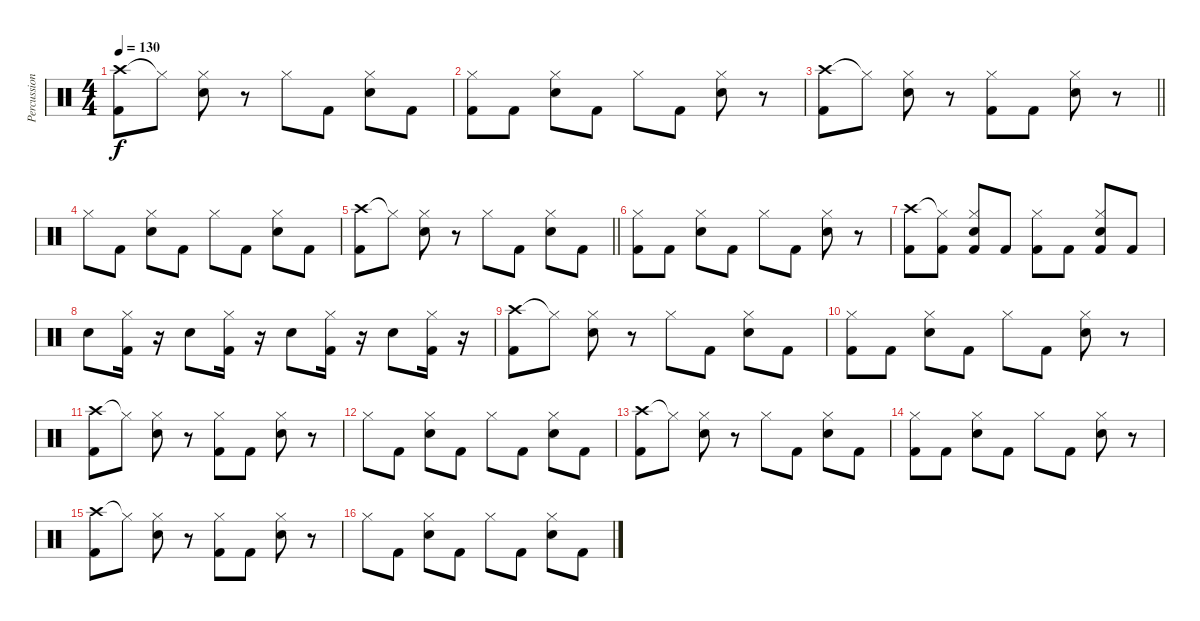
\track ("Percussion" "Percussion") {instrument percussion}
\staff {score}
\articulation defaults
\ts (4 4)
\tempo 130
\clef neutral
\ks c
("Crash high (hit)" "Kick (hit) 2").8{dy f} "Hi-Hat (closed)"{t}.8 ("Hi-Hat (closed)" "Snare (hit) 2").8 r.8 "Hi-Hat (closed)".8 "Kick (hit) 2".8 ("Hi-Hat (closed)" "Snare (hit) 2").8 "Kick (hit) 2".8 |
("Hi-Hat (closed)" "Kick (hit) 2").8 "Kick (hit) 2".8 ("Hi-Hat (closed)" "Snare (hit) 2").8 "Kick (hit) 2".8 "Hi-Hat (closed)".8 "Kick (hit) 2".8 ("Hi-Hat (closed)" "Snare (hit) 2").8 r.8 |
\barLineRight lightlight
("Crash high (hit)" "Kick (hit) 2").8 "Hi-Hat (closed)"{t}.8 ("Hi-Hat (closed)" "Snare (hit) 2").8 r.8 ("Hi-Hat (closed)" "Kick (hit) 2").8 "Kick (hit) 2".8 ("Hi-Hat (closed)" "Snare (hit) 2").8 r.8 |
"Hi-Hat (closed)".8 "Kick (hit) 2".8 ("Hi-Hat (closed)" "Snare (hit) 2").8 "Kick (hit) 2".8 "Hi-Hat (closed)".8 "Kick (hit) 2".8 ("Hi-Hat (closed)" "Snare (hit) 2").8 "Kick (hit) 2".8 |
\barLineRight lightlight
("Crash high (hit)" "Kick (hit) 2").8 "Hi-Hat (closed)"{t}.8 ("Hi-Hat (closed)" "Snare (hit) 2").8 r.8 "Hi-Hat (closed)".8 "Kick (hit) 2".8 ("Hi-Hat (closed)" "Snare (hit) 2").8 "Kick (hit) 2".8 |
("Hi-Hat (closed)" "Kick (hit) 2").8 "Kick (hit) 2".8 ("Hi-Hat (closed)" "Snare (hit) 2").8 "Kick (hit) 2".8 "Hi-Hat (closed)".8 "Kick (hit) 2".8 ("Hi-Hat (closed)" "Snare (hit) 2").8 r.8 |
("Crash high (hit)" "Kick (hit) 2").8 ("Hi-Hat (closed)"{t} "Kick (hit) 2").8 ("Hi-Hat (closed)" "Snare (hit) 2" "Kick (hit) 2").8 "Kick (hit) 2".8 ("Hi-Hat (closed)" "Kick (hit) 2").8 "Kick (hit) 2".8 ("Hi-Hat (closed)" "Snare (hit) 2" "Kick (hit) 2").8 "Kick (hit) 2".8 |
"Snare (hit) 2".8 ("Hi-Hat (closed)" "Kick (hit) 2").16 r.16 "Snare (hit) 2".8 ("Hi-Hat (closed)" "Kick (hit) 2").16 r.16 "Snare (hit) 2".8 ("Hi-Hat (closed)" "Kick (hit) 2").16 r.16 "Snare (hit) 2".8 ("Hi-Hat (closed)" "Kick (hit) 2").16 r.16 |
("Crash high (hit)" "Kick (hit) 2").8 "Hi-Hat (closed)"{t}.8 ("Hi-Hat (closed)" "Snare (hit) 2").8 r.8 "Hi-Hat (closed)".8 "Kick (hit) 2".8 ("Hi-Hat (closed)" "Snare (hit) 2").8 "Kick (hit) 2".8 |
("Hi-Hat (closed)" "Kick (hit) 2").8 "Kick (hit) 2".8 ("Hi-Hat (closed)" "Snare (hit) 2").8 "Kick (hit) 2".8 "Hi-Hat (closed)".8 "Kick (hit) 2".8 ("Hi-Hat (closed)" "Snare (hit) 2").8 r.8 |
("Crash high (hit)" "Kick (hit) 2").8 "Hi-Hat (closed)"{t}.8 ("Hi-Hat (closed)" "Snare (hit) 2").8 r.8 ("Hi-Hat (closed)" "Kick (hit) 2").8 "Kick (hit) 2".8 ("Hi-Hat (closed)" "Snare (hit) 2").8 r.8 |
"Hi-Hat (closed)".8 "Kick (hit) 2".8 ("Hi-Hat (closed)" "Snare (hit) 2").8 "Kick (hit) 2".8 "Hi-Hat (closed)".8 "Kick (hit) 2".8 ("Hi-Hat (closed)" "Snare (hit) 2").8 "Kick (hit) 2".8 |
("Crash high (hit)" "Kick (hit) 2").8 "Hi-Hat (closed)"{t}.8 ("Hi-Hat (closed)" "Snare (hit) 2").8 r.8 "Hi-Hat (closed)".8 "Kick (hit) 2".8 ("Hi-Hat (closed)" "Snare (hit) 2").8 "Kick (hit) 2".8 |
("Hi-Hat (closed)" "Kick (hit) 2").8 "Kick (hit) 2".8 ("Hi-Hat (closed)" "Snare (hit) 2").8 "Kick (hit) 2".8 "Hi-Hat (closed)".8 "Kick (hit) 2".8 ("Hi-Hat (closed)" "Snare (hit) 2").8 r.8 |
("Crash high (hit)" "Kick (hit) 2").8 "Hi-Hat (closed)"{t}.8 ("Hi-Hat (closed)" "Snare (hit) 2").8 r.8 ("Hi-Hat (closed)" "Kick (hit) 2").8 "Kick (hit) 2".8 ("Hi-Hat (closed)" "Snare (hit) 2").8 r.8 |
"Hi-Hat (closed)".8 "Kick (hit) 2".8 ("Hi-Hat (closed)" "Snare (hit) 2").8 "Kick (hit) 2".8 "Hi-Hat (closed)".8 "Kick (hit) 2".8 ("Hi-Hat (closed)" "Snare (hit) 2").8 "Kick (hit) 2".8
